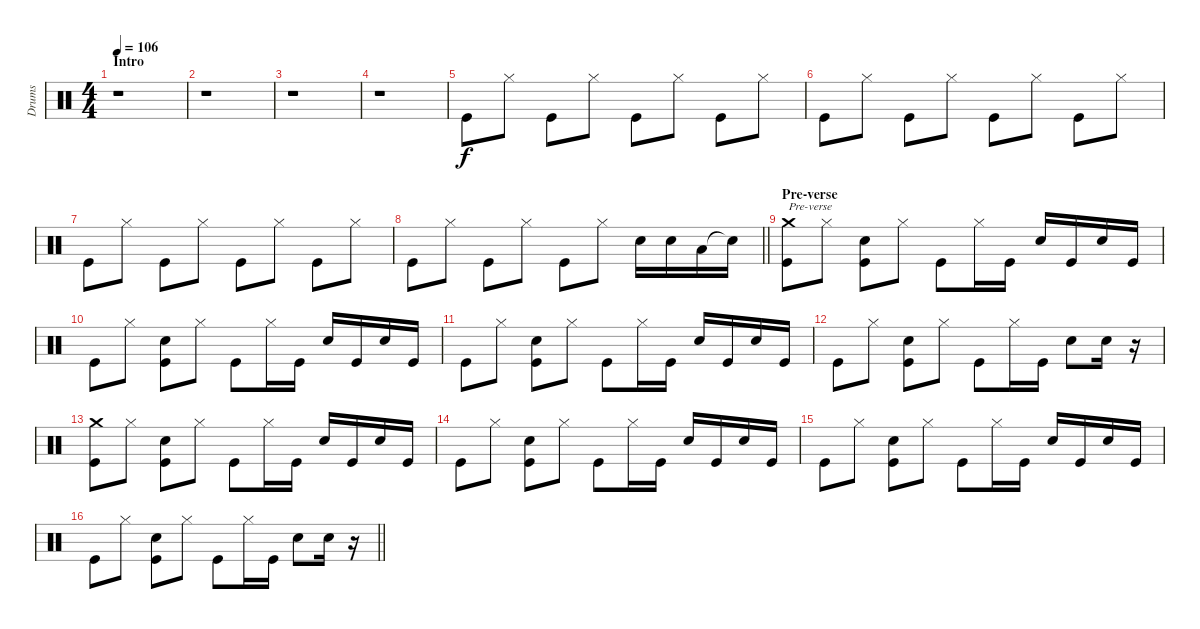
\track ("Drums" "Drums") {instrument percussion}
\staff {score}
\articulation defaults
\ts (4 4)
\section ("" "Intro")
\tempo 106
\clef neutral
\ks c
r.1{dy f} |
r.1 |
r.1 |
r.1 |
"Kick (hit)".8 "Hi-Hat (closed)".8 "Kick (hit)".8 "Hi-Hat (closed)".8 "Kick (hit)".8 "Hi-Hat (closed)".8 "Kick (hit)".8 "Hi-Hat (closed)".8 |
"Kick (hit)".8 "Hi-Hat (closed)".8 "Kick (hit)".8 "Hi-Hat (closed)".8 "Kick (hit)".8 "Hi-Hat (closed)".8 "Kick (hit)".8 "Hi-Hat (closed)".8 |
"Kick (hit)".8 "Hi-Hat (closed)".8 "Kick (hit)".8 "Hi-Hat (closed)".8 "Kick (hit)".8 "Hi-Hat (closed)".8 "Kick (hit)".8 "Hi-Hat (closed)".8 |
\barLineRight lightlight "Kick (hit)".8 "Hi-Hat (closed)".8 "Kick (hit)".8 "Hi-Hat (closed)".8 "Kick (hit)".8 "Hi-Hat (closed)".8 "Electric Snare (hit)".16 "Electric Snare (hit)".16 "Low Floor Tom (hit)".16 "Snare (hit)"{t}.16
|
\section ("" "Pre-verse")
("Kick (hit)" "Crash medium (hit)").8{txt "Pre-verse"} "Hi-Hat (closed)".8 ("Kick (hit)" "Electric Snare (hit)").8 "Hi-Hat (closed)".8 "Kick (hit)".8 "Hi-Hat (closed)".16 "Kick (hit)".16 "Electric Snare (hit)".16 "Kick (hit)".16 "Electric Snare (hit)".16 "Kick (hit)".16 |
"Kick (hit)".8 "Hi-Hat (closed)".8 ("Kick (hit)" "Electric Snare (hit)").8 "Hi-Hat (closed)".8 "Kick (hit)".8 "Hi-Hat (closed)".16 "Kick (hit)".16 "Electric Snare (hit)".16 "Kick (hit)".16 "Electric Snare (hit)".16 "Kick (hit)".16 |
"Kick (hit)".8 "Hi-Hat (closed)".8 ("Kick (hit)" "Electric Snare (hit)").8 "Hi-Hat (closed)".8 "Kick (hit)".8 "Hi-Hat (closed)".16 "Kick (hit)".16 "Electric Snare (hit)".16 "Kick (hit)".16 "Electric Snare (hit)".16 "Kick (hit)".16 |
"Kick (hit)".8 "Hi-Hat (closed)".8 ("Kick (hit)" "Electric Snare (hit)").8 "Hi-Hat (closed)".8 "Kick (hit)".8 "Hi-Hat (closed)".16 "Kick (hit)".16 "Electric Snare (hit)".8 "Electric Snare (hit)".16 r.16 |
("Kick (hit)" "Crash medium (hit)").8 "Hi-Hat (closed)".8 ("Kick (hit)" "Electric Snare (hit)").8 "Hi-Hat (closed)".8 "Kick (hit)".8 "Hi-Hat (closed)".16 "Kick (hit)".16 "Electric Snare (hit)".16 "Kick (hit)".16 "Electric Snare (hit)".16 "Kick (hit)".16 |
"Kick (hit)".8 "Hi-Hat (closed)".8 ("Kick (hit)" "Electric Snare (hit)").8 "Hi-Hat (closed)".8 "Kick (hit)".8 "Hi-Hat (closed)".16 "Kick (hit)".16 "Electric Snare (hit)".16 "Kick (hit)".16 "Electric Snare (hit)".16 "Kick (hit)".16 |
"Kick (hit)".8 "Hi-Hat (closed)".8 ("Kick (hit)" "Electric Snare (hit)").8 "Hi-Hat (closed)".8 "Kick (hit)".8 "Hi-Hat (closed)".16 "Kick (hit)".16 "Electric Snare (hit)".16 "Kick (hit)".16 "Electric Snare (hit)".16 "Kick (hit)".16 |
\barLineRight lightlight "Kick (hit)".8 "Hi-Hat (closed)".8
("Kick (hit)" "Electric Snare (hit)").8 "Hi-Hat (closed)".8 "Kick (hit)".8 "Hi-Hat (closed)".16 "Kick (hit)".16 "Electric Snare (hit)".8 "Electric Snare (hit)".16 r.16
